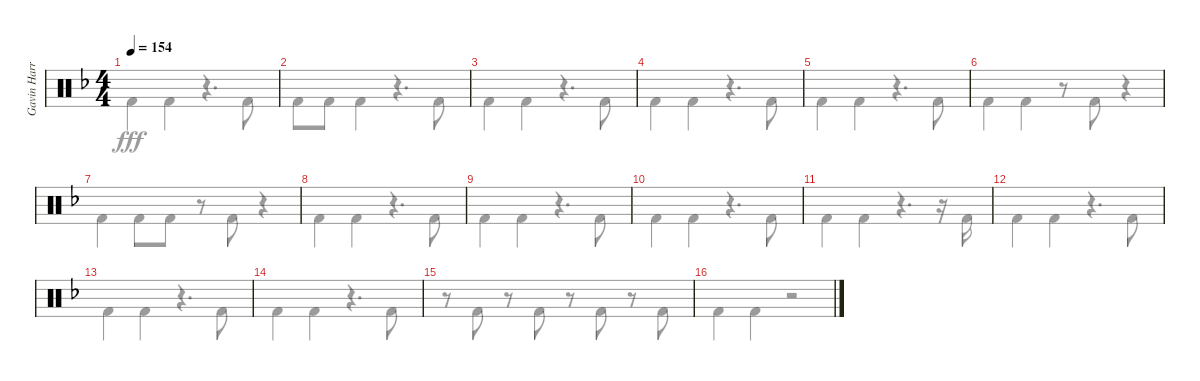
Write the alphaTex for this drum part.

\track ("Gavin Harrison Bass Pedal" "Gavin Harr") {instrument percussion}
\staff {score}
\articulation defaults
\voice
\ts (4 4)
\tempo 154
\clef neutral
\ks dminor
|
|
|
|
|
|
|
|
|
|
|
|
|
|
|
\voice
\clef neutral
\ks dminor "Kick (hit) 2".4{dy fff} "Kick (hit) 2".4
r.4{d} "Kick (hit) 2".8 |
"Kick (hit) 2".8 "Kick (hit) 2".8 "Kick (hit) 2".4 r.4{d} "Kick (hit) 2".8 |
"Kick (hit) 2".4 "Kick (hit) 2".4 r.4{d} "Kick (hit) 2".8 |
"Kick (hit) 2".4 "Kick (hit) 2".4 r.4{d} "Kick (hit) 2".8 |
"Kick (hit) 2".4 "Kick (hit) 2".4 r.4{d} "Kick (hit) 2".8 |
"Kick (hit) 2".4 "Kick (hit) 2".4 r.8 "Kick (hit) 2".8 r.4 |
"Kick (hit) 2".4 "Kick (hit) 2".8 "Kick (hit) 2".8 r.8 "Kick (hit) 2".8 r.4 |
"Kick (hit) 2".4 "Kick (hit) 2".4 r.4{d} "Kick (hit) 2".8 |
"Kick (hit) 2".4 "Kick (hit) 2".4 r.4{d} "Kick (hit) 2".8 |
"Kick (hit) 2".4 "Kick (hit) 2".4 r.4{d} "Kick (hit) 2".8 |
"Kick (hit) 2".4 "Kick (hit) 2".4 r.4{d} r.16 "Kick (hit) 2".16 |
"Kick (hit) 2".4 "Kick (hit) 2".4 r.4{d} "Kick (hit) 2".8 |
"Kick (hit) 2".4 "Kick (hit) 2".4 r.4{d} "Kick (hit) 2".8 |
"Kick (hit) 2".4 "Kick (hit) 2".4 r.4{d} "Kick (hit) 2".8 |
r.8 "Kick (hit) 2".8 r.8 "Kick (hit) 2".8 r.8 "Kick (hit) 2".8 r.8 "Kick (hit) 2".8 |
"Kick (hit) 2".4 "Kick (hit) 2".4 r.2
